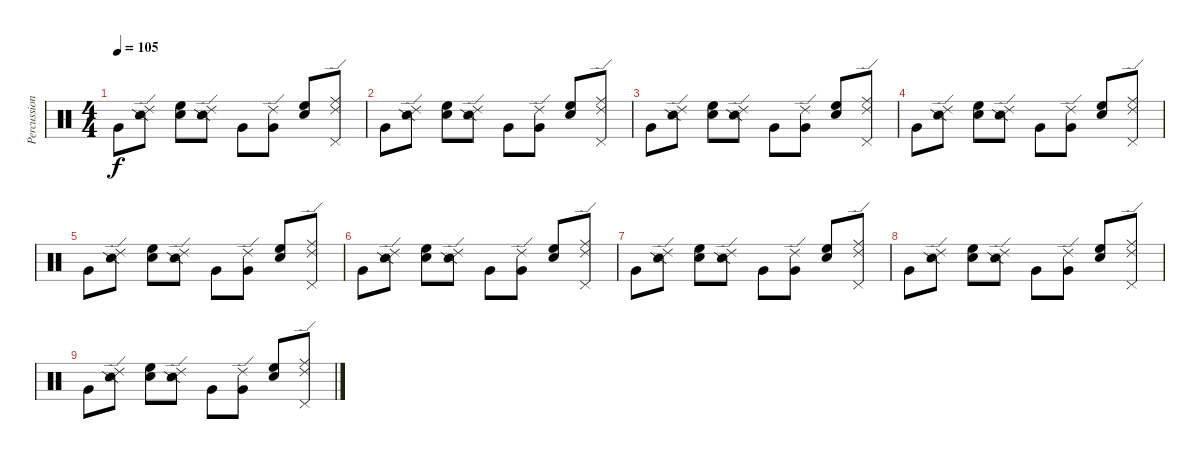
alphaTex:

\track ("Percussions" "Percussion") {instrument percussion}
\staff {score}
\articulation defaults
\ts (4 4)
\tempo 105
\clef neutral
\ks c "Very Low Tom (hit)".8{dy f}
("Ride (edge) 2" "Snare (side stick) 2").8 ("Hand Clap (hit)" "High Floor Tom (hit)").8 ("Ride (edge) 2" "Snare (side stick) 2").8 "Very Low Tom (hit)".8 ("Ride (edge) 2" "Very Low Tom (hit)").8 ("Hand Clap (hit)" "High Floor Tom (hit)").8 ("Ride (edge) 2" "Ride (middle)" "Pedal Hi-Hat (hit)").8 |
"Very Low Tom (hit)".8 ("Ride (edge) 2" "Snare (side stick) 2").8 ("Hand Clap (hit)" "High Floor Tom (hit)").8 ("Ride (edge) 2" "Snare (side stick) 2").8 "Very Low Tom (hit)".8 ("Ride (edge) 2" "Very Low Tom (hit)").8 ("Hand Clap (hit)" "High Floor Tom (hit)").8 ("Ride (edge) 2" "Ride (middle)" "Pedal Hi-Hat (hit)").8 |
"Very Low Tom (hit)".8 ("Ride (edge) 2" "Snare (side stick) 2").8 ("Hand Clap (hit)" "High Floor Tom (hit)").8 ("Ride (edge) 2" "Snare (side stick) 2").8 "Very Low Tom (hit)".8 ("Ride (edge) 2" "Very Low Tom (hit)").8 ("Hand Clap (hit)" "High Floor Tom (hit)").8 ("Ride (edge) 2" "Ride (middle)" "Pedal Hi-Hat (hit)").8 |
"Very Low Tom (hit)".8 ("Ride (edge) 2" "Snare (side stick) 2").8 ("Hand Clap (hit)" "High Floor Tom (hit)").8 ("Ride (edge) 2" "Snare (side stick) 2").8 "Very Low Tom (hit)".8 ("Ride (edge) 2" "Very Low Tom (hit)").8 ("Hand Clap (hit)" "High Floor Tom (hit)").8 ("Ride (edge) 2" "Ride (middle)" "Pedal Hi-Hat (hit)").8 |
"Very Low Tom (hit)".8 ("Ride (edge) 2" "Snare (side stick) 2").8 ("Hand Clap (hit)" "High Floor Tom (hit)").8 ("Ride (edge) 2" "Snare (side stick) 2").8 "Very Low Tom (hit)".8 ("Ride (edge) 2" "Very Low Tom (hit)").8 ("Hand Clap (hit)" "High Floor Tom (hit)").8 ("Ride (edge) 2" "Ride (middle)" "Pedal Hi-Hat (hit)").8 |
"Very Low Tom (hit)".8 ("Ride (edge) 2" "Snare (side stick) 2").8 ("Hand Clap (hit)" "High Floor Tom (hit)").8 ("Ride (edge) 2" "Snare (side stick) 2").8 "Very Low Tom (hit)".8 ("Ride (edge) 2" "Very Low Tom (hit)").8 ("Hand Clap (hit)" "High Floor Tom (hit)").8 ("Ride (edge) 2" "Ride (middle)" "Pedal Hi-Hat (hit)").8 |
"Very Low Tom (hit)".8 ("Ride (edge) 2" "Snare (side stick) 2").8 ("Hand Clap (hit)" "High Floor Tom (hit)").8 ("Ride (edge) 2" "Snare (side stick) 2").8 "Very Low Tom (hit)".8 ("Ride (edge) 2" "Very Low Tom (hit)").8 ("Hand Clap (hit)" "High Floor Tom (hit)").8 ("Ride (edge) 2" "Ride (middle)" "Pedal Hi-Hat (hit)").8 |
"Very Low Tom (hit)".8{volume 0} ("Ride (edge) 2" "Snare (side stick) 2").8 ("Hand Clap (hit)" "High Floor Tom (hit)").8 ("Ride (edge) 2" "Snare (side stick) 2").8 "Very Low Tom (hit)".8 ("Ride (edge) 2" "Very Low Tom (hit)").8 ("Hand Clap (hit)" "High Floor Tom (hit)").8 ("Ride (edge) 2" "Ride (middle)" "Pedal Hi-Hat (hit)").8 |
"Very Low Tom (hit)".8 ("Ride (edge) 2" "Snare (side stick) 2").8 ("Hand Clap (hit)" "High Floor Tom (hit)").8 ("Ride (edge) 2" "Snare (side stick) 2").8 "Very Low Tom (hit)".8 ("Ride (edge) 2" "Very Low Tom (hit)").8 ("Hand Clap (hit)" "High Floor Tom (hit)").8 ("Ride (edge) 2" "Ride (middle)" "Pedal Hi-Hat (hit)").8
